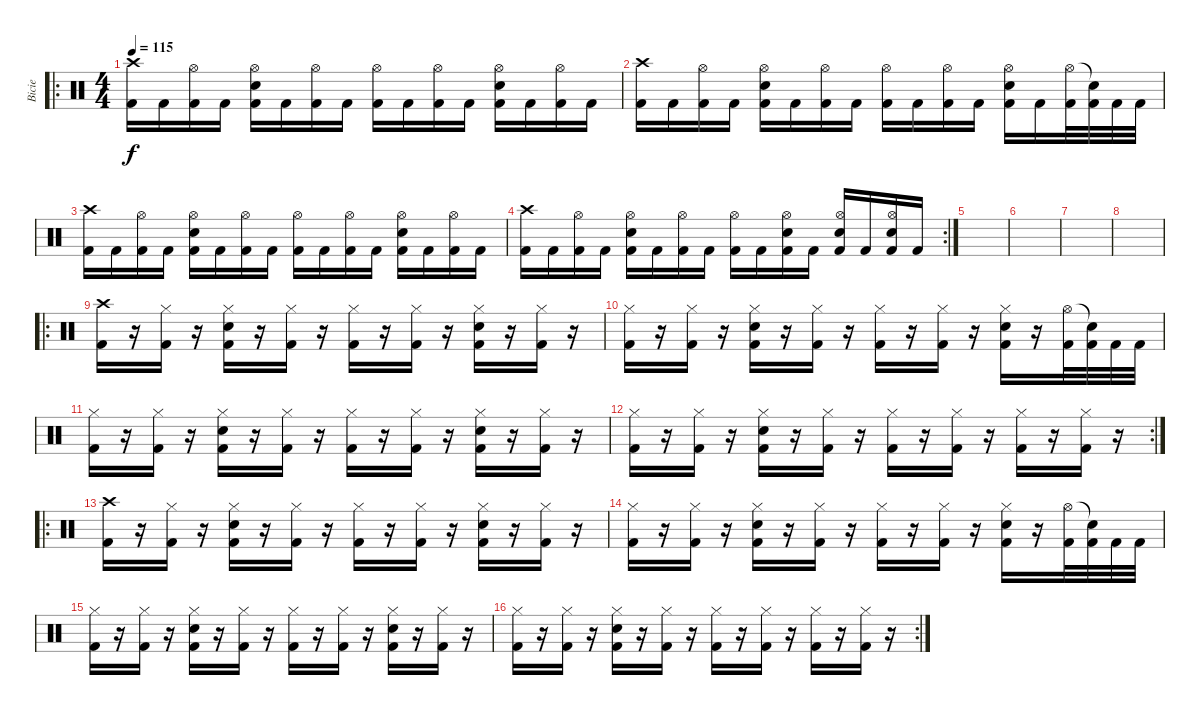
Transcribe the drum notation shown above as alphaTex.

\track ("Bicie" "Bicie") {instrument percussion}
\staff {score}
\articulation defaults
\ro
\ts (4 4)
\tempo 115
\clef neutral
\ks c
("Crash high (hit)" "Kick (hit) 2").16{dy f} "Kick (hit) 2".16 ("Hi-Hat (open)" "Kick (hit) 2").16 "Kick (hit) 2".16 ("Hi-Hat (open)" "Electric Snare (hit)" "Kick (hit) 2").16 "Kick (hit) 2".16 ("Hi-Hat (open)" "Kick (hit) 2").16 "Kick (hit) 2".16 ("Hi-Hat (open)" "Kick (hit) 2").16 "Kick (hit) 2".16 ("Hi-Hat (open)" "Kick (hit) 2").16 "Kick (hit) 2".16 ("Hi-Hat (open)" "Electric Snare (hit)" "Kick (hit) 2").16 "Kick (hit) 2".16 ("Hi-Hat (open)" "Kick (hit) 2").16 "Kick (hit) 2".16 |
("Crash high (hit)" "Kick (hit) 2").16 "Kick (hit) 2".16 ("Hi-Hat (open)" "Kick (hit) 2").16 "Kick (hit) 2".16 ("Hi-Hat (open)" "Electric Snare (hit)" "Kick (hit) 2").16 "Kick (hit) 2".16 ("Hi-Hat (open)" "Kick (hit) 2").16 "Kick (hit) 2".16 ("Hi-Hat (open)" "Kick (hit) 2").16 "Kick (hit) 2".16 ("Hi-Hat (open)" "Kick (hit) 2").16 "Kick (hit) 2".16 ("Hi-Hat (open)" "Electric Snare (hit)" "Kick (hit) 2").16 "Kick (hit) 2".16 ("Hi-Hat (open)" "Kick (hit) 2").32 ("Snare (hit)"{t} "Kick (hit) 2").32 "Kick (hit) 2".32 "Kick (hit) 2".32 |
("Crash high (hit)" "Kick (hit) 2").16 "Kick (hit) 2".16 ("Hi-Hat (open)" "Kick (hit) 2").16 "Kick (hit) 2".16 ("Hi-Hat (open)" "Electric Snare (hit)" "Kick (hit) 2").16 "Kick (hit) 2".16 ("Hi-Hat (open)" "Kick (hit) 2").16 "Kick (hit) 2".16 ("Hi-Hat (open)" "Kick (hit) 2").16 "Kick (hit) 2".16 ("Hi-Hat (open)" "Kick (hit) 2").16 "Kick (hit) 2".16 ("Hi-Hat (open)" "Electric Snare (hit)" "Kick (hit) 2").16 "Kick (hit) 2".16 ("Hi-Hat (open)" "Kick (hit) 2").16 "Kick (hit) 2".16 |
\rc 2
("Crash high (hit)" "Kick (hit) 2").16 "Kick (hit) 2".16 ("Hi-Hat (open)" "Kick (hit) 2").16 "Kick (hit) 2".16 ("Hi-Hat (open)" "Electric Snare (hit)" "Kick (hit) 2").16 "Kick (hit) 2".16 ("Hi-Hat (open)" "Kick (hit) 2").16 "Kick (hit) 2".16 ("Hi-Hat (open)" "Kick (hit) 2").16 "Kick (hit) 2".16 ("Hi-Hat (open)" "Electric Snare (hit)" "Kick (hit) 2").16 "Kick (hit) 2".16 ("Hi-Hat (open)" "Electric Snare (hit)" "Kick (hit) 2").16 "Kick (hit) 2".16 ("Hi-Hat (open)" "Electric Snare (hit)" "Kick (hit) 2").16 "Kick (hit) 2".16 |
|
|
|
|
\ro
("Crash high (hit)" "Kick (hit) 2").16 r.16 ("Hi-Hat (closed)" "Kick (hit) 2").16 r.16 ("Hi-Hat (closed)" "Electric Snare (hit)" "Kick (hit) 2").16 r.16 ("Hi-Hat (closed)" "Kick (hit) 2").16 r.16 ("Hi-Hat (closed)" "Kick (hit) 2").16 r.16 ("Hi-Hat (closed)" "Kick (hit) 2").16 r.16 ("Hi-Hat (closed)" "Electric Snare (hit)" "Kick (hit) 2").16 r.16 ("Hi-Hat (closed)" "Kick (hit) 2").16 r.16 |
("Hi-Hat (closed)" "Kick (hit) 2").16 r.16 ("Hi-Hat (closed)" "Kick (hit) 2").16 r.16 ("Hi-Hat (closed)" "Electric Snare (hit)" "Kick (hit) 2").16 r.16 ("Hi-Hat (closed)" "Kick (hit) 2").16 r.16 ("Hi-Hat (closed)" "Kick (hit) 2").16 r.16 ("Hi-Hat (closed)" "Kick (hit) 2").16 r.16 ("Hi-Hat (closed)" "Electric Snare (hit)" "Kick (hit) 2").16 r.16 ("Hi-Hat (open)" "Kick (hit) 2").32 ("Snare (hit)"{t} "Kick (hit) 2").32 "Kick (hit) 2".32 "Kick (hit) 2".32 |
("Hi-Hat (closed)" "Kick (hit) 2").16 r.16 ("Hi-Hat (closed)" "Kick (hit) 2").16 r.16 ("Hi-Hat (closed)" "Electric Snare (hit)" "Kick (hit) 2").16 r.16 ("Hi-Hat (closed)" "Kick (hit) 2").16 r.16 ("Hi-Hat (closed)" "Kick (hit) 2").16 r.16 ("Hi-Hat (closed)" "Kick (hit) 2").16 r.16 ("Hi-Hat (closed)" "Electric Snare (hit)" "Kick (hit) 2").16 r.16 ("Hi-Hat (closed)" "Kick (hit) 2").16 r.16 |
\rc 2
("Hi-Hat (closed)" "Kick (hit) 2").16 r.16 ("Hi-Hat (closed)" "Kick (hit) 2").16 r.16 ("Hi-Hat (closed)" "Electric Snare (hit)" "Kick (hit) 2").16 r.16 ("Hi-Hat (closed)" "Kick (hit) 2").16 r.16 ("Hi-Hat (closed)" "Kick (hit) 2").16 r.16 ("Hi-Hat (closed)" "Kick (hit) 2").16 r.16 ("Hi-Hat (closed)" "Kick (hit) 2").16 r.16 ("Hi-Hat (closed)" "Kick (hit) 2").16 r.16 |
\ro
("Crash high (hit)" "Kick (hit) 2").16 r.16 ("Hi-Hat (closed)" "Kick (hit) 2").16 r.16 ("Hi-Hat (closed)" "Electric Snare (hit)" "Kick (hit) 2").16 r.16 ("Hi-Hat (closed)" "Kick (hit) 2").16 r.16 ("Hi-Hat (closed)" "Kick (hit) 2").16 r.16 ("Hi-Hat (closed)" "Kick (hit) 2").16 r.16 ("Hi-Hat (closed)" "Electric Snare (hit)" "Kick (hit) 2").16 r.16 ("Hi-Hat (closed)" "Kick (hit) 2").16 r.16 |
("Hi-Hat (closed)" "Kick (hit) 2").16 r.16 ("Hi-Hat (closed)" "Kick (hit) 2").16 r.16 ("Hi-Hat (closed)" "Electric Snare (hit)" "Kick (hit) 2").16 r.16 ("Hi-Hat (closed)" "Kick (hit) 2").16 r.16 ("Hi-Hat (closed)" "Kick (hit) 2").16 r.16 ("Hi-Hat (closed)" "Kick (hit) 2").16 r.16 ("Hi-Hat (closed)" "Electric Snare (hit)" "Kick (hit) 2").16 r.16 ("Hi-Hat (open)" "Kick (hit) 2").32 ("Snare (hit)"{t} "Kick (hit) 2").32 "Kick (hit) 2".32 "Kick (hit) 2".32 |
("Hi-Hat (closed)" "Kick (hit) 2").16 r.16 ("Hi-Hat (closed)" "Kick (hit) 2").16 r.16 ("Hi-Hat (closed)" "Electric Snare (hit)" "Kick (hit) 2").16 r.16 ("Hi-Hat (closed)" "Kick (hit) 2").16 r.16 ("Hi-Hat (closed)" "Kick (hit) 2").16 r.16 ("Hi-Hat (closed)" "Kick (hit) 2").16 r.16 ("Hi-Hat (closed)" "Electric Snare (hit)" "Kick (hit) 2").16 r.16 ("Hi-Hat (closed)" "Kick (hit) 2").16 r.16 |
\rc 2
("Hi-Hat (closed)" "Kick (hit) 2").16 r.16 ("Hi-Hat (closed)" "Kick (hit) 2").16 r.16 ("Hi-Hat (closed)" "Electric Snare (hit)" "Kick (hit) 2").16 r.16 ("Hi-Hat (closed)" "Kick (hit) 2").16 r.16 ("Hi-Hat (closed)" "Kick (hit) 2").16 r.16 ("Hi-Hat (closed)" "Kick (hit) 2").16 r.16 ("Hi-Hat (closed)" "Kick (hit) 2").16 r.16 ("Hi-Hat (closed)" "Kick (hit) 2").16 r.16
